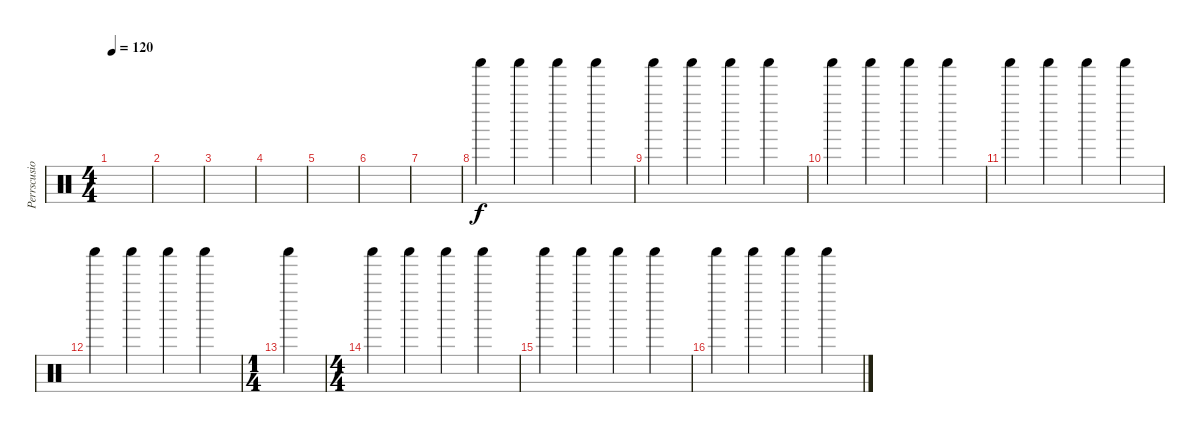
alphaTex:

\track ("Perrscusion" "Perrscusio") {instrument percussion}
\staff {score}
\articulation defaults
\ts (4 4)
\tempo 120
\clef neutral
\ks c
|
|
|
|
|
|
|
"Shaker (hit)".4 "Shaker (hit)".4 "Shaker (hit)".4 "Shaker (hit)".4 |
"Shaker (hit)".4 "Shaker (hit)".4 "Shaker (hit)".4 "Shaker (hit)".4 |
"Shaker (hit)".4 "Shaker (hit)".4 "Shaker (hit)".4 "Shaker (hit)".4 |
"Shaker (hit)".4 "Shaker (hit)".4 "Shaker (hit)".4 "Shaker (hit)".4 |
"Shaker (hit)".4 "Shaker (hit)".4 "Shaker (hit)".4 "Shaker (hit)".4 |
\ts (1 4)
"Shaker (hit)".4 |
\ts (4 4)
"Shaker (hit)".4 "Shaker (hit)".4 "Shaker (hit)".4 "Shaker (hit)".4 |
"Shaker (hit)".4 "Shaker (hit)".4 "Shaker (hit)".4 "Shaker (hit)".4 |
"Shaker (hit)".4 "Shaker (hit)".4 "Shaker (hit)".4 "Shaker (hit)".4
